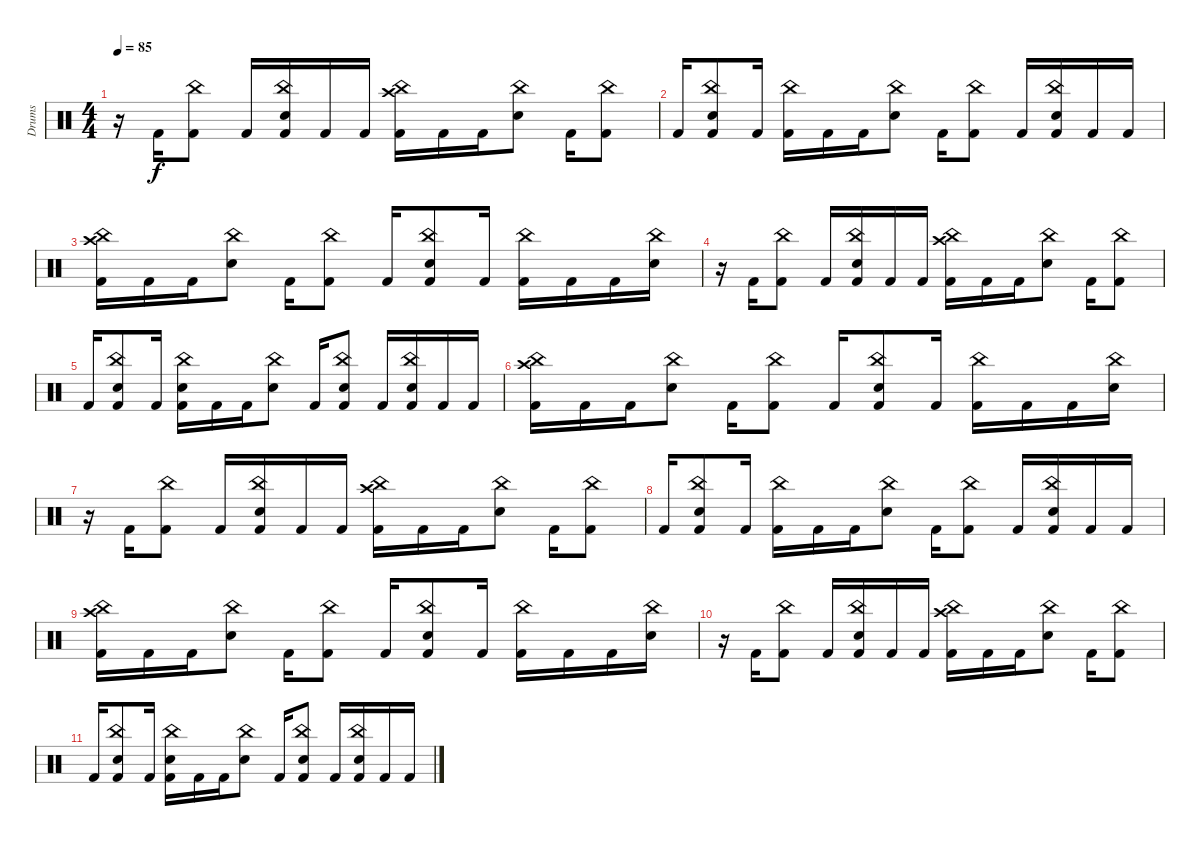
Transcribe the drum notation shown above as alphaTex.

\track ("Drums" "Drums") {instrument percussion}
\staff {score}
\articulation defaults
\ts (4 4)
\tempo 85
\clef neutral
\ks c
r.16{dy f} "Kick (hit) 2".16 ("China (hit)" "Kick (hit) 2").8 "Kick (hit) 2".16 ("China (hit)" "Snare (hit) 2" "Kick (hit) 2").16 "Kick (hit) 2".16 "Kick (hit) 2".16 ("China (hit)" "Crash high (hit)" "Kick (hit) 2").16 "Kick (hit) 2".16 "Kick (hit) 2".16 ("China (hit)" "Snare (hit) 2").8 "Kick (hit) 2".16 ("China (hit)" "Kick (hit) 2").8 |
"Kick (hit) 2".16 ("China (hit)" "Snare (hit) 2" "Kick (hit) 2").8 "Kick (hit) 2".16 ("China (hit)" "Kick (hit) 2").16 "Kick (hit) 2".16 "Kick (hit) 2".16 ("China (hit)" "Snare (hit) 2").8 "Kick (hit) 2".16 ("China (hit)" "Kick (hit) 2").8 "Kick (hit) 2".16 ("China (hit)" "Snare (hit) 2" "Kick (hit) 2").16 "Kick (hit) 2".16 "Kick (hit) 2".16 |
("China (hit)" "Crash high (hit)" "Kick (hit) 2").16 "Kick (hit) 2".16 "Kick (hit) 2".16 ("China (hit)" "Snare (hit) 2").8 "Kick (hit) 2".16 ("China (hit)" "Kick (hit) 2").8 "Kick (hit) 2".16 ("China (hit)" "Snare (hit) 2" "Kick (hit) 2").8 "Kick (hit) 2".16 ("China (hit)" "Kick (hit) 2").16 "Kick (hit) 2".16 "Kick (hit) 2".16 ("China (hit)" "Snare (hit) 2").16 |
r.16 "Kick (hit) 2".16 ("China (hit)" "Kick (hit) 2").8 "Kick (hit) 2".16 ("China (hit)" "Snare (hit) 2" "Kick (hit) 2").16 "Kick (hit) 2".16 "Kick (hit) 2".16 ("China (hit)" "Crash high (hit)" "Kick (hit) 2").16 "Kick (hit) 2".16 "Kick (hit) 2".16 ("China (hit)" "Snare (hit) 2").8 "Kick (hit) 2".16 ("China (hit)" "Kick (hit) 2").8 |
"Kick (hit) 2".16 ("China (hit)" "Snare (hit) 2" "Kick (hit) 2").8 "Kick (hit) 2".16 ("China (hit)" "Snare (hit) 2" "Kick (hit) 2").16 "Kick (hit) 2".16 "Kick (hit) 2".16 ("China (hit)" "Snare (hit) 2").8 "Kick (hit) 2".16 ("China (hit)" "Snare (hit) 2" "Kick (hit) 2").8 "Kick (hit) 2".16 ("China (hit)" "Snare (hit) 2" "Kick (hit) 2").16 "Kick (hit) 2".16 "Kick (hit) 2".16 |
("China (hit)" "Crash high (hit)" "Kick (hit) 2").16 "Kick (hit) 2".16 "Kick (hit) 2".16 ("China (hit)" "Snare (hit) 2").8 "Kick (hit) 2".16 ("China (hit)" "Kick (hit) 2").8 "Kick (hit) 2".16 ("China (hit)" "Snare (hit) 2" "Kick (hit) 2").8 "Kick (hit) 2".16 ("China (hit)" "Kick (hit) 2").16 "Kick (hit) 2".16 "Kick (hit) 2".16 ("China (hit)" "Snare (hit) 2").16 |
r.16 "Kick (hit) 2".16 ("China (hit)" "Kick (hit) 2").8 "Kick (hit) 2".16 ("China (hit)" "Snare (hit) 2" "Kick (hit) 2").16 "Kick (hit) 2".16 "Kick (hit) 2".16 ("China (hit)" "Crash high (hit)" "Kick (hit) 2").16 "Kick (hit) 2".16 "Kick (hit) 2".16 ("China (hit)" "Snare (hit) 2").8 "Kick (hit) 2".16 ("China (hit)" "Kick (hit) 2").8 |
"Kick (hit) 2".16 ("China (hit)" "Snare (hit) 2" "Kick (hit) 2").8 "Kick (hit) 2".16 ("China (hit)" "Kick (hit) 2").16 "Kick (hit) 2".16 "Kick (hit) 2".16 ("China (hit)" "Snare (hit) 2").8 "Kick (hit) 2".16 ("China (hit)" "Kick (hit) 2").8 "Kick (hit) 2".16 ("China (hit)" "Snare (hit) 2" "Kick (hit) 2").16 "Kick (hit) 2".16 "Kick (hit) 2".16 |
("China (hit)" "Crash high (hit)" "Kick (hit) 2").16 "Kick (hit) 2".16 "Kick (hit) 2".16 ("China (hit)" "Snare (hit) 2").8 "Kick (hit) 2".16 ("China (hit)" "Kick (hit) 2").8 "Kick (hit) 2".16 ("China (hit)" "Snare (hit) 2" "Kick (hit) 2").8 "Kick (hit) 2".16 ("China (hit)" "Kick (hit) 2").16 "Kick (hit) 2".16 "Kick (hit) 2".16 ("China (hit)" "Snare (hit) 2").16 |
r.16 "Kick (hit) 2".16 ("China (hit)" "Kick (hit) 2").8 "Kick (hit) 2".16 ("China (hit)" "Snare (hit) 2" "Kick (hit) 2").16 "Kick (hit) 2".16 "Kick (hit) 2".16 ("China (hit)" "Crash high (hit)" "Kick (hit) 2").16 "Kick (hit) 2".16 "Kick (hit) 2".16 ("China (hit)" "Snare (hit) 2").8 "Kick (hit) 2".16 ("China (hit)" "Kick (hit) 2").8 |
"Kick (hit) 2".16 ("China (hit)" "Snare (hit) 2" "Kick (hit) 2").8 "Kick (hit) 2".16 ("China (hit)" "Snare (hit) 2" "Kick (hit) 2").16 "Kick (hit) 2".16 "Kick (hit) 2".16 ("China (hit)" "Snare (hit) 2").8 "Kick (hit) 2".16 ("China (hit)" "Snare (hit) 2" "Kick (hit) 2").8 "Kick (hit) 2".16 ("China (hit)" "Snare (hit) 2" "Kick (hit) 2").16 "Kick (hit) 2".16 "Kick (hit) 2".16
